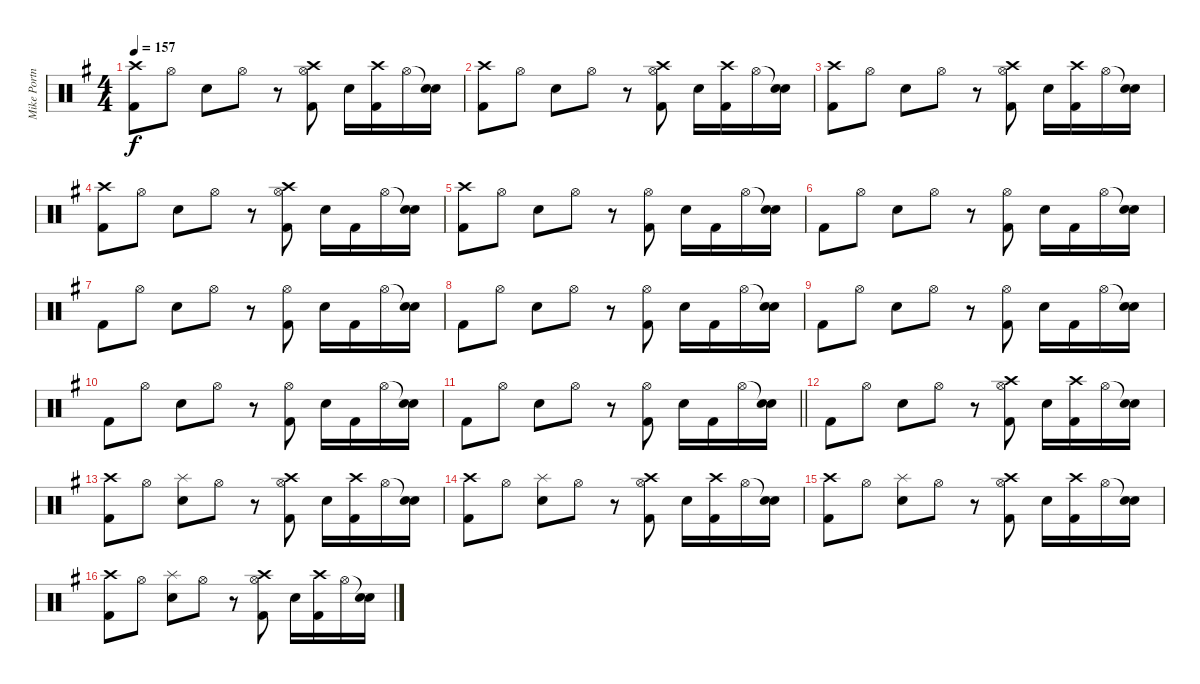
\track ("Mike Portnoy" "Mike Portn") {instrument percussion}
\staff {score}
\articulation defaults
\ts (4 4)
\tempo 157
\clef neutral
\ks g
("Kick (hit) 2" "Crash high (hit)").8{dy f} "Hi-Hat (open)".8 "Snare (hit) 2".8 "Hi-Hat (open)".8 r.8 ("Kick (hit) 2" "Hi-Hat (open)" "Crash high (hit)").8 "Snare (hit) 2".16 ("Kick (hit) 2" "Crash high (hit)").16 "Hi-Hat (open)".16 ("Snare (hit)"{t} "Snare (hit) 2").16 |
("Kick (hit) 2" "Crash high (hit)").8 "Hi-Hat (open)".8 "Snare (hit) 2".8 "Hi-Hat (open)".8 r.8 ("Kick (hit) 2" "Hi-Hat (open)" "Crash high (hit)").8 "Snare (hit) 2".16 ("Kick (hit) 2" "Crash high (hit)").16 "Hi-Hat (open)".16 ("Snare (hit)"{t} "Snare (hit) 2").16 |
("Kick (hit) 2" "Crash high (hit)").8 "Hi-Hat (open)".8 "Snare (hit) 2".8 "Hi-Hat (open)".8 r.8 ("Kick (hit) 2" "Hi-Hat (open)" "Crash high (hit)").8 "Snare (hit) 2".16 ("Kick (hit) 2" "Crash high (hit)").16 "Hi-Hat (open)".16 ("Snare (hit)"{t} "Snare (hit) 2").16 |
("Kick (hit) 2" "Crash high (hit)").8 "Hi-Hat (open)".8 "Snare (hit) 2".8 "Hi-Hat (open)".8 r.8 ("Kick (hit) 2" "Hi-Hat (open)" "Crash high (hit)").8 "Snare (hit) 2".16 "Kick (hit) 2".16 "Hi-Hat (open)".16 ("Snare (hit)"{t} "Snare (hit) 2").16 |
("Kick (hit) 2" "Crash high (hit)").8 "Hi-Hat (open)".8 "Snare (hit) 2".8 "Hi-Hat (open)".8 r.8 ("Kick (hit) 2" "Hi-Hat (open)").8 "Snare (hit) 2".16 "Kick (hit) 2".16 "Hi-Hat (open)".16 ("Snare (hit)"{t} "Snare (hit) 2").16 |
"Kick (hit) 2".8 "Hi-Hat (open)".8 "Snare (hit) 2".8 "Hi-Hat (open)".8 r.8 ("Kick (hit) 2" "Hi-Hat (open)").8 "Snare (hit) 2".16 "Kick (hit) 2".16 "Hi-Hat (open)".16 ("Snare (hit)"{t} "Snare (hit) 2").16 |
"Kick (hit) 2".8 "Hi-Hat (open)".8 "Snare (hit) 2".8 "Hi-Hat (open)".8 r.8 ("Kick (hit) 2" "Hi-Hat (open)").8 "Snare (hit) 2".16 "Kick (hit) 2".16 "Hi-Hat (open)".16 ("Snare (hit)"{t} "Snare (hit) 2").16 |
"Kick (hit) 2".8 "Hi-Hat (open)".8 "Snare (hit) 2".8 "Hi-Hat (open)".8 r.8 ("Kick (hit) 2" "Hi-Hat (open)").8 "Snare (hit) 2".16 "Kick (hit) 2".16 "Hi-Hat (open)".16 ("Snare (hit)"{t} "Snare (hit) 2").16 |
"Kick (hit) 2".8 "Hi-Hat (open)".8 "Snare (hit) 2".8 "Hi-Hat (open)".8 r.8 ("Kick (hit) 2" "Hi-Hat (open)").8 "Snare (hit) 2".16 "Kick (hit) 2".16 "Hi-Hat (open)".16 ("Snare (hit)"{t} "Snare (hit) 2").16 |
"Kick (hit) 2".8 "Hi-Hat (open)".8 "Snare (hit) 2".8 "Hi-Hat (open)".8 r.8 ("Kick (hit) 2" "Hi-Hat (open)").8 "Snare (hit) 2".16 "Kick (hit) 2".16 "Hi-Hat (open)".16 ("Snare (hit)"{t} "Snare (hit) 2").16 |
\barLineRight lightlight "Kick (hit) 2".8 "Hi-Hat (open)".8 "Snare (hit) 2".8 "Hi-Hat (open)".8
r.8 ("Kick (hit) 2" "Hi-Hat (open)").8 "Snare (hit) 2".16 "Kick (hit) 2".16 "Hi-Hat (open)".16 ("Snare (hit)"{t} "Snare (hit) 2").16 |
"Kick (hit) 2".8 "Hi-Hat (open)".8 "Snare (hit) 2".8 "Hi-Hat (open)".8 r.8 ("Kick (hit) 2" "Hi-Hat (open)" "Crash high (hit)").8 "Snare (hit) 2".16 ("Kick (hit) 2" "Crash high (hit)").16 "Hi-Hat (open)".16 ("Snare (hit)"{t} "Snare (hit) 2").16 |
("Kick (hit) 2" "Crash high (hit)").8 "Hi-Hat (open)".8 ("Snare (hit) 2" "Splash (hit)").8 "Hi-Hat (open)".8 r.8 ("Kick (hit) 2" "Hi-Hat (open)" "Crash high (hit)").8 "Snare (hit) 2".16 ("Kick (hit) 2" "Crash high (hit)").16 "Hi-Hat (open)".16 ("Snare (hit)"{t} "Snare (hit) 2").16 |
("Kick (hit) 2" "Crash high (hit)").8 "Hi-Hat (open)".8 ("Snare (hit) 2" "Splash (hit)").8 "Hi-Hat (open)".8 r.8 ("Kick (hit) 2" "Hi-Hat (open)" "Crash high (hit)").8 "Snare (hit) 2".16 ("Kick (hit) 2" "Crash high (hit)").16 "Hi-Hat (open)".16 ("Snare (hit)"{t} "Snare (hit) 2").16 |
("Kick (hit) 2" "Crash high (hit)").8 "Hi-Hat (open)".8 ("Snare (hit) 2" "Splash (hit)").8 "Hi-Hat (open)".8 r.8 ("Kick (hit) 2" "Hi-Hat (open)" "Crash high (hit)").8 "Snare (hit) 2".16 ("Kick (hit) 2" "Crash high (hit)").16 "Hi-Hat (open)".16 ("Snare (hit)"{t} "Snare (hit) 2").16 |
("Kick (hit) 2" "Crash high (hit)").8 "Hi-Hat (open)".8 ("Snare (hit) 2" "Splash (hit)").8 "Hi-Hat (open)".8 r.8 ("Kick (hit) 2" "Hi-Hat (open)" "Crash high (hit)").8 "Snare (hit) 2".16 ("Kick (hit) 2" "Crash high (hit)").16 "Hi-Hat (open)".16 ("Snare (hit)"{t} "Snare (hit) 2").16
